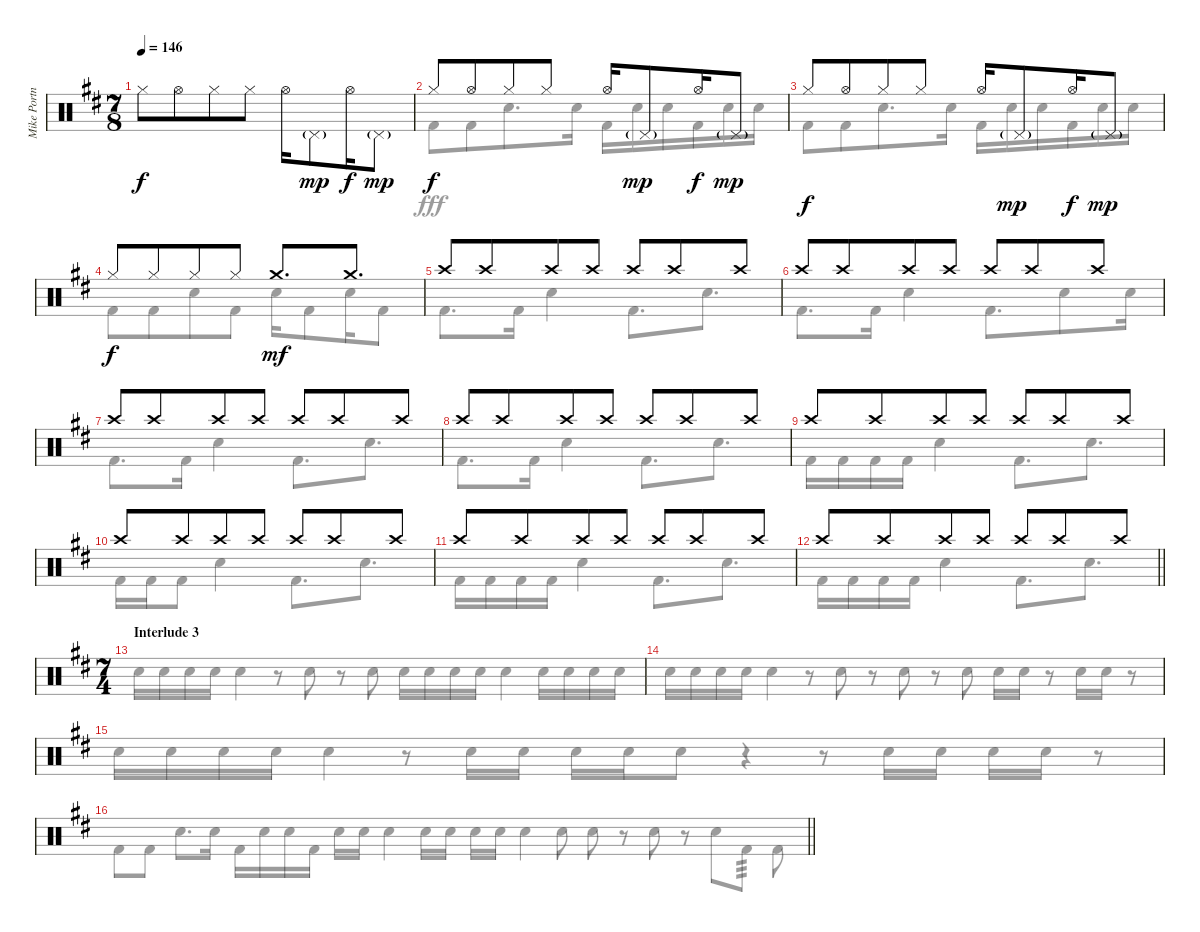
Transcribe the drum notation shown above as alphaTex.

\track ("Mike Portnoy Drums" "Mike Portn") {instrument percussion}
\staff {score}
\articulation defaults
\voice
\ts (7 8)
\tempo 146
\clef neutral
\ks bminor "Hi-Hat (closed)".8{dy f} "Hi-Hat (open)".8 "Hi-Hat (closed)".8 "Hi-Hat (closed)".8 "Hi-Hat (open)".16 "Pedal Hi-Hat (hit)"{g}.8{dy mp} "Hi-Hat (open)".16{dy f} "Pedal Hi-Hat (hit)"{g}.8{dy mp}
|
"Hi-Hat (closed)".8{dy f} "Hi-Hat (open)".8 "Hi-Hat (closed)".8 "Hi-Hat (closed)".8 "Hi-Hat (open)".16 "Pedal Hi-Hat (hit)"{g}.8{dy mp} "Hi-Hat (open)".16{dy f} "Pedal Hi-Hat (hit)"{g}.8{dy mp} |
"Hi-Hat (closed)".8{dy f} "Hi-Hat (open)".8 "Hi-Hat (closed)".8 "Hi-Hat (closed)".8 "Hi-Hat (open)".16 "Pedal Hi-Hat (hit)"{g}.8{dy mp} "Hi-Hat (open)".16{dy f} "Pedal Hi-Hat (hit)"{g}.8{dy mp} |
"Hi-Hat (closed)".8{dy f} "Hi-Hat (closed)".8 "Hi-Hat (closed)".8 "Hi-Hat (closed)".8 "Crash medium (hit)".8{d dy mf} "Crash medium (hit)".8{d} |
"Crash high (hit)".8 "Crash high (hit)".8 "Crash high (hit)".8 "Crash high (hit)".8 "Crash high (hit)".8 "Crash high (hit)".8 "Crash high (hit)".8 |
"Crash high (hit)".8 "Crash high (hit)".8 "Crash high (hit)".8 "Crash high (hit)".8 "Crash high (hit)".8 "Crash high (hit)".8 "Crash high (hit)".8 |
"Crash high (hit)".8 "Crash high (hit)".8 "Crash high (hit)".8 "Crash high (hit)".8 "Crash high (hit)".8 "Crash high (hit)".8 "Crash high (hit)".8 |
"Crash high (hit)".8 "Crash high (hit)".8 "Crash high (hit)".8 "Crash high (hit)".8 "Crash high (hit)".8 "Crash high (hit)".8 "Crash high (hit)".8 |
"Crash high (hit)".8 "Crash high (hit)".8 "Crash high (hit)".8 "Crash high (hit)".8 "Crash high (hit)".8 "Crash high (hit)".8 "Crash high (hit)".8 |
"Crash high (hit)".8 "Crash high (hit)".8 "Crash high (hit)".8 "Crash high (hit)".8 "Crash high (hit)".8 "Crash high (hit)".8 "Crash high (hit)".8 |
"Crash high (hit)".8 "Crash high (hit)".8 "Crash high (hit)".8 "Crash high (hit)".8 "Crash high (hit)".8 "Crash high (hit)".8 "Crash high (hit)".8 |
\barLineRight lightlight "Crash high (hit)".8 "Crash high (hit)".8 "Crash high (hit)".8 "Crash high (hit)".8 "Crash high (hit)".8 "Crash high (hit)".8 "Crash high (hit)".8
|
\ts (7 4)
\section ("" "Interlude 3")
|
|
|
\barLineRight lightlight
\voice
\clef neutral
\ottava regular
\simile none
\ks bminor "Kick (hit) 2".8{dy fff} "Kick (hit) 2".8 "Snare (hit) 2".8{d} "Snare (hit) 2".16 "Kick (hit) 2".16 "Snare (hit) 2".16 "Snare (hit) 2".16 "Kick (hit) 2".16 "Snare (hit) 2".16 "Snare (hit) 2".16
|
"Kick (hit) 2".8 "Kick (hit) 2".8 "Snare (hit) 2".8{d} "Snare (hit) 2".16 "Kick (hit) 2".16 "Snare (hit) 2".16 "Snare (hit) 2".16 "Kick (hit) 2".16 "Snare (hit) 2".16 "Snare (hit) 2".16 |
"Kick (hit) 2".8 "Kick (hit) 2".8 "Snare (hit) 2".8{d} "Snare (hit) 2".16 "Kick (hit) 2".16 "Snare (hit) 2".16 "Snare (hit) 2".16 "Kick (hit) 2".16 "Snare (hit) 2".16 "Snare (hit) 2".16 |
"Kick (hit) 2".8 "Kick (hit) 2".8 "Snare (hit) 2".8 "Kick (hit) 2".8 "Snare (hit) 2".16 "Kick (hit) 2".8 "Snare (hit) 2".16 "Kick (hit) 2".8 |
"Kick (hit) 2".8{d} "Kick (hit) 2".16 "Snare (hit) 2".4 "Kick (hit) 2".8{d} "Snare (hit) 2".8{d} |
"Kick (hit) 2".8{d} "Kick (hit) 2".16 "Snare (hit) 2".4 "Kick (hit) 2".8{d} "Snare (hit) 2".8 "Snare (hit) 2".16 |
"Kick (hit) 2".8{d} "Kick (hit) 2".16 "Snare (hit) 2".4 "Kick (hit) 2".8{d} "Snare (hit) 2".8{d} |
"Kick (hit) 2".8{d} "Kick (hit) 2".16 "Snare (hit) 2".4 "Kick (hit) 2".8{d} "Snare (hit) 2".8{d} |
"Kick (hit) 2".16 "Kick (hit) 2".16 "Kick (hit) 2".16 "Kick (hit) 2".16 "Snare (hit) 2".4 "Kick (hit) 2".8{d} "Snare (hit) 2".8{d} |
"Kick (hit) 2".16 "Kick (hit) 2".16 "Kick (hit) 2".8 "Snare (hit) 2".4 "Kick (hit) 2".8{d} "Snare (hit) 2".8{d} |
"Kick (hit) 2".16 "Kick (hit) 2".16 "Kick (hit) 2".16 "Kick (hit) 2".16 "Snare (hit) 2".4 "Kick (hit) 2".8{d} "Snare (hit) 2".8{d} |
\barLineRight lightlight "Kick (hit) 2".16 "Kick (hit) 2".16 "Kick (hit) 2".16 "Kick (hit) 2".16 "Snare (hit) 2".4 "Kick (hit) 2".8{d} "Snare (hit) 2".8{d}
|
"Snare (hit) 2".16 "Snare (hit) 2".16 "Snare (hit) 2".16 "Snare (hit) 2".16 "Snare (hit) 2".4 r.8 "Snare (hit) 2".8 r.8 "Snare (hit) 2".8 "Snare (hit) 2".16 "Snare (hit) 2".16 "Snare (hit) 2".16 "Snare (hit) 2".16 "Snare (hit) 2".4 "Snare (hit) 2".16 "Snare (hit) 2".16 "Snare (hit) 2".16 "Snare (hit) 2".16 |
"Snare (hit) 2".16 "Snare (hit) 2".16 "Snare (hit) 2".16 "Snare (hit) 2".16 "Snare (hit) 2".4 r.8 "Snare (hit) 2".8 r.8 "Snare (hit) 2".8 r.8 "Snare (hit) 2".8 "Snare (hit) 2".16 "Snare (hit) 2".16 r.8 "Snare (hit) 2".16 "Snare (hit) 2".16 r.8 |
"Snare (hit) 2".16 "Snare (hit) 2".16 "Snare (hit) 2".16 "Snare (hit) 2".16 "Snare (hit) 2".4 r.8 "Snare (hit) 2".16 "Snare (hit) 2".16 "Snare (hit) 2".16 "Snare (hit) 2".16 "Snare (hit) 2".8 r.4 r.8 "Snare (hit) 2".16 "Snare (hit) 2".16 "Snare (hit) 2".16 "Snare (hit) 2".16 r.8 |
\barLineRight lightlight "Snare (hit) 2".4 "Snare (hit) 2".16 "Snare (hit) 2".16 "Snare (hit) 2".16 "Snare (hit) 2".16 "Snare (hit) 2".4 "Snare (hit) 2".8 "Snare (hit) 2".8
r.8 "Snare (hit) 2".8 r.8 "Snare (hit) 2".8 "Kick (hit) 2".8{tp 3} "Kick (hit) 2".8
